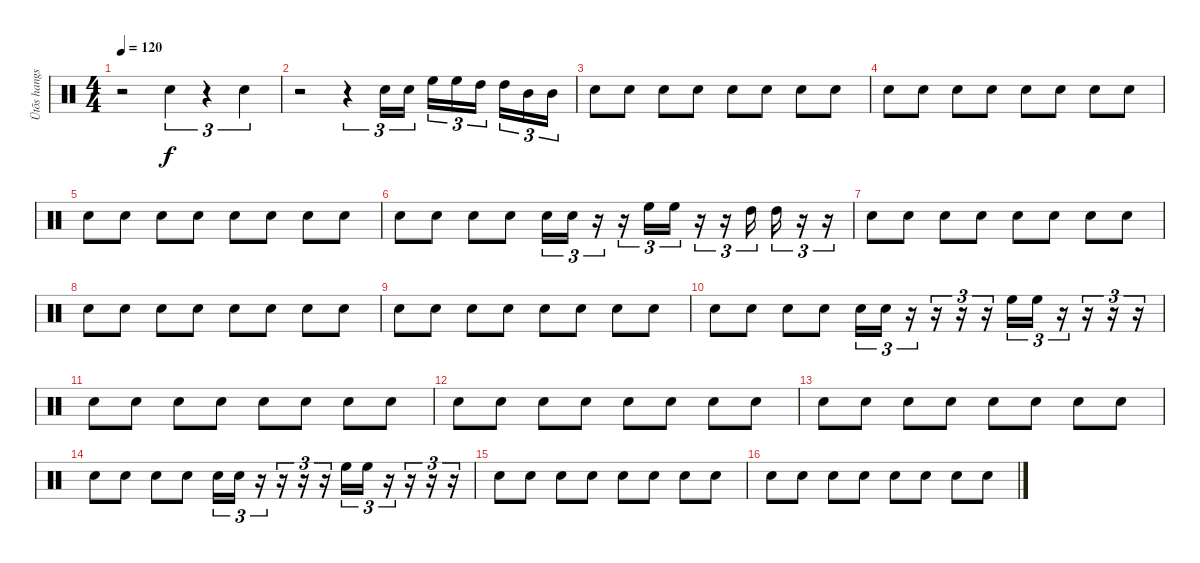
\track ("Ütõs hangszer" "Ütõs hangs") {instrument percussion}
\staff {score}
\articulation defaults
\ts (4 4)
\tempo 120
\clef neutral
\ks c
r.2{dy f} "Electric Snare (hit)".4{tu (3 2)} r.4{tu (3 2)} "Electric Snare (hit)".4{tu (3 2)} |
r.2 r.4{tu (3 2)} "Electric Snare (hit)".16{tu (3 2)} "Electric Snare (hit)".16{tu (3 2)} "High Floor Tom (hit)".16{tu (3 2)} "High Floor Tom (hit)".16{tu (3 2)} "High Tom (hit)".16{tu (3 2)} "High Tom (hit)".16{tu (3 2)} "Mid Tom (hit)".16{tu (3 2)} "Mid Tom (hit)".16{tu (3 2)} |
"Electric Snare (hit)".8 "Electric Snare (hit)".8 "Electric Snare (hit)".8 "Electric Snare (hit)".8 "Electric Snare (hit)".8 "Electric Snare (hit)".8 "Electric Snare (hit)".8 "Electric Snare (hit)".8 |
"Electric Snare (hit)".8 "Electric Snare (hit)".8 "Electric Snare (hit)".8 "Electric Snare (hit)".8 "Electric Snare (hit)".8 "Electric Snare (hit)".8 "Electric Snare (hit)".8 "Electric Snare (hit)".8 |
"Electric Snare (hit)".8 "Electric Snare (hit)".8 "Electric Snare (hit)".8 "Electric Snare (hit)".8 "Electric Snare (hit)".8 "Electric Snare (hit)".8 "Electric Snare (hit)".8 "Electric Snare (hit)".8 |
"Electric Snare (hit)".8 "Electric Snare (hit)".8 "Electric Snare (hit)".8 "Electric Snare (hit)".8 "Electric Snare (hit)".16{tu (3 2)} "Electric Snare (hit)".16{tu (3 2)} r.16{tu (3 2)} r.16{tu (3 2)} "High Floor Tom (hit)".16{tu (3 2)} "High Floor Tom (hit)".16{tu (3 2)} r.16{tu (3 2)} r.16{tu (3 2)} "High Tom (hit)".16{tu (3 2)} "High Tom (hit)".16{tu (3 2)} r.16{tu (3 2)} r.16{tu (3 2)} |
"Electric Snare (hit)".8 "Electric Snare (hit)".8 "Electric Snare (hit)".8 "Electric Snare (hit)".8 "Electric Snare (hit)".8 "Electric Snare (hit)".8 "Electric Snare (hit)".8 "Electric Snare (hit)".8 |
"Electric Snare (hit)".8 "Electric Snare (hit)".8 "Electric Snare (hit)".8 "Electric Snare (hit)".8 "Electric Snare (hit)".8 "Electric Snare (hit)".8 "Electric Snare (hit)".8 "Electric Snare (hit)".8 |
"Electric Snare (hit)".8 "Electric Snare (hit)".8 "Electric Snare (hit)".8 "Electric Snare (hit)".8 "Electric Snare (hit)".8 "Electric Snare (hit)".8 "Electric Snare (hit)".8 "Electric Snare (hit)".8 |
"Electric Snare (hit)".8 "Electric Snare (hit)".8 "Electric Snare (hit)".8 "Electric Snare (hit)".8 "Electric Snare (hit)".16{tu (3 2)} "Electric Snare (hit)".16{tu (3 2)} r.16{tu (3 2)} r.16{tu (3 2)} r.16{tu (3 2)} r.16{tu (3 2)} "High Floor Tom (hit)".16{tu (3 2)} "High Floor Tom (hit)".16{tu (3 2)} r.16{tu (3 2)} r.16{tu (3 2)} r.16{tu (3 2)} r.16{tu (3 2)} |
"Electric Snare (hit)".8 "Electric Snare (hit)".8 "Electric Snare (hit)".8 "Electric Snare (hit)".8 "Electric Snare (hit)".8 "Electric Snare (hit)".8 "Electric Snare (hit)".8 "Electric Snare (hit)".8 |
"Electric Snare (hit)".8 "Electric Snare (hit)".8 "Electric Snare (hit)".8 "Electric Snare (hit)".8 "Electric Snare (hit)".8 "Electric Snare (hit)".8 "Electric Snare (hit)".8 "Electric Snare (hit)".8 |
"Electric Snare (hit)".8 "Electric Snare (hit)".8 "Electric Snare (hit)".8 "Electric Snare (hit)".8 "Electric Snare (hit)".8 "Electric Snare (hit)".8 "Electric Snare (hit)".8 "Electric Snare (hit)".8 |
"Electric Snare (hit)".8 "Electric Snare (hit)".8 "Electric Snare (hit)".8 "Electric Snare (hit)".8 "Electric Snare (hit)".16{tu (3 2)} "Electric Snare (hit)".16{tu (3 2)} r.16{tu (3 2)} r.16{tu (3 2)} r.16{tu (3 2)} r.16{tu (3 2)} "High Floor Tom (hit)".16{tu (3 2)} "High Floor Tom (hit)".16{tu (3 2)} r.16{tu (3 2)} r.16{tu (3 2)} r.16{tu (3 2)} r.16{tu (3 2)} |
"Electric Snare (hit)".8 "Electric Snare (hit)".8 "Electric Snare (hit)".8 "Electric Snare (hit)".8 "Electric Snare (hit)".8 "Electric Snare (hit)".8 "Electric Snare (hit)".8 "Electric Snare (hit)".8 |
"Electric Snare (hit)".8 "Electric Snare (hit)".8 "Electric Snare (hit)".8 "Electric Snare (hit)".8 "Electric Snare (hit)".8 "Electric Snare (hit)".8 "Electric Snare (hit)".8 "Electric Snare (hit)".8
